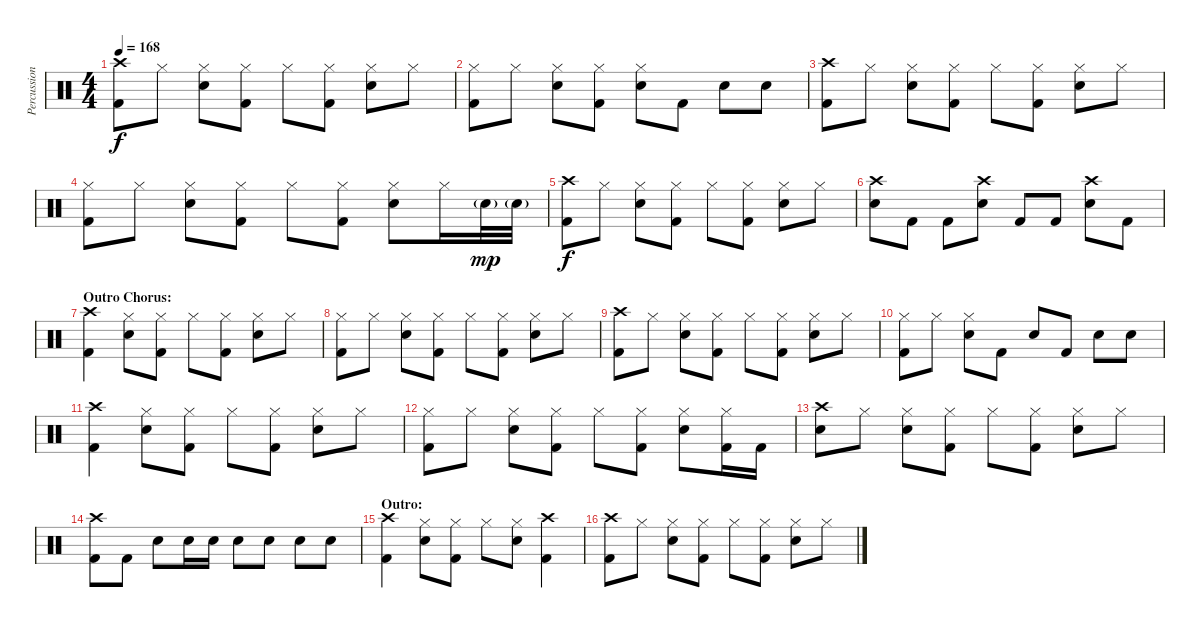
\track ("Percussion" "Percussion") {instrument percussion}
\staff {score}
\articulation defaults
\ts (4 4)
\tempo 168
\clef neutral
\ks c
("Crash high (hit)" "Kick (hit) 2").8{dy f} "Hi-Hat (closed)".8 ("Hi-Hat (closed)" "Snare (hit) 2").8 ("Hi-Hat (closed)" "Kick (hit) 2").8 "Hi-Hat (closed)".8 ("Hi-Hat (closed)" "Kick (hit) 2").8 ("Hi-Hat (closed)" "Snare (hit) 2").8 "Hi-Hat (closed)".8 |
("Hi-Hat (closed)" "Kick (hit) 2").8 "Hi-Hat (closed)".8 ("Hi-Hat (closed)" "Snare (hit) 2").8 ("Hi-Hat (closed)" "Kick (hit) 2").8 ("Hi-Hat (closed)" "Snare (hit) 2").8 "Kick (hit) 2".8 "Snare (hit) 2".8 "Snare (hit) 2".8 |
("Crash high (hit)" "Kick (hit) 2").8 "Hi-Hat (closed)".8 ("Hi-Hat (closed)" "Snare (hit) 2").8 ("Hi-Hat (closed)" "Kick (hit) 2").8 "Hi-Hat (closed)".8 ("Hi-Hat (closed)" "Kick (hit) 2").8 ("Hi-Hat (closed)" "Snare (hit) 2").8 "Hi-Hat (closed)".8 |
("Hi-Hat (closed)" "Kick (hit) 2").8 "Hi-Hat (closed)".8 ("Hi-Hat (closed)" "Snare (hit) 2").8 ("Hi-Hat (closed)" "Kick (hit) 2").8 "Hi-Hat (closed)".8 ("Hi-Hat (closed)" "Kick (hit) 2").8 ("Hi-Hat (closed)" "Snare (hit) 2").8 "Hi-Hat (closed)".16 "Snare (hit) 2"{g}.32{dy mp} "Snare (hit) 2"{g}.32 |
("Crash high (hit)" "Kick (hit) 2").8{dy f} "Hi-Hat (closed)".8 ("Hi-Hat (closed)" "Snare (hit) 2").8 ("Hi-Hat (closed)" "Kick (hit) 2").8 "Hi-Hat (closed)".8 ("Hi-Hat (closed)" "Kick (hit) 2").8 ("Hi-Hat (closed)" "Snare (hit) 2").8 "Hi-Hat (closed)".8 |
("Crash high (hit)" "Snare (hit) 2").8 "Kick (hit) 2".8 "Kick (hit) 2".8 ("Crash high (hit)" "Snare (hit) 2").8 "Kick (hit) 2".8 "Kick (hit) 2".8 ("Crash high (hit)" "Snare (hit) 2").8 "Kick (hit) 2".8 |
\section ("" "Outro Chorus:")
("Crash high (hit)" "Kick (hit) 2").4 ("Hi-Hat (closed)" "Snare (hit) 2").8 ("Hi-Hat (closed)" "Kick (hit) 2").8 "Hi-Hat (closed)".8 ("Hi-Hat (closed)" "Kick (hit) 2").8 ("Hi-Hat (closed)" "Snare (hit) 2").8 "Hi-Hat (closed)".8 |
("Hi-Hat (closed)" "Kick (hit) 2").8 "Hi-Hat (closed)".8 ("Hi-Hat (closed)" "Snare (hit) 2").8 ("Hi-Hat (closed)" "Kick (hit) 2").8 "Hi-Hat (closed)".8 ("Hi-Hat (closed)" "Kick (hit) 2").8 ("Hi-Hat (closed)" "Snare (hit) 2").8 "Hi-Hat (closed)".8 |
("Crash high (hit)" "Kick (hit) 2").8 "Hi-Hat (closed)".8 ("Hi-Hat (closed)" "Snare (hit) 2").8 ("Hi-Hat (closed)" "Kick (hit) 2").8 "Hi-Hat (closed)".8 ("Hi-Hat (closed)" "Kick (hit) 2").8 ("Hi-Hat (closed)" "Snare (hit) 2").8 "Hi-Hat (closed)".8 |
("Hi-Hat (closed)" "Kick (hit) 2").8 "Hi-Hat (closed)".8 ("Hi-Hat (closed)" "Snare (hit) 2").8 "Kick (hit) 2".8 "Snare (hit) 2".8 "Kick (hit) 2".8 "Snare (hit) 2".8 "Snare (hit) 2".8 |
("Crash high (hit)" "Kick (hit) 2").4 ("Hi-Hat (closed)" "Snare (hit) 2").8 ("Hi-Hat (closed)" "Kick (hit) 2").8 "Hi-Hat (closed)".8 ("Hi-Hat (closed)" "Kick (hit) 2").8 ("Hi-Hat (closed)" "Snare (hit) 2").8 "Hi-Hat (closed)".8 |
("Hi-Hat (closed)" "Kick (hit) 2").8 "Hi-Hat (closed)".8 ("Hi-Hat (closed)" "Snare (hit) 2").8 ("Hi-Hat (closed)" "Kick (hit) 2").8 "Hi-Hat (closed)".8 ("Hi-Hat (closed)" "Kick (hit) 2").8 ("Hi-Hat (closed)" "Snare (hit) 2").8 ("Hi-Hat (closed)" "Kick (hit) 2").16 "Kick (hit) 2".16 |
("Crash high (hit)" "Snare (hit) 2").8 "Hi-Hat (closed)".8 ("Hi-Hat (closed)" "Snare (hit) 2").8 ("Hi-Hat (closed)" "Kick (hit) 2").8 "Hi-Hat (closed)".8 ("Hi-Hat (closed)" "Kick (hit) 2").8 ("Hi-Hat (closed)" "Snare (hit) 2").8 "Hi-Hat (closed)".8 |
("Crash high (hit)" "Kick (hit) 2").8 "Kick (hit) 2".8 "Snare (hit) 2".8 "Snare (hit) 2".16 "Snare (hit) 2".16 "Snare (hit) 2".8 "Snare (hit) 2".8 "Snare (hit) 2".8 "Snare (hit) 2".8 |
\section ("" "Outro:")
("Crash high (hit)" "Kick (hit) 2").4 ("Hi-Hat (closed)" "Snare (hit) 2").8 ("Hi-Hat (closed)" "Kick (hit) 2").8 "Hi-Hat (closed)".8 ("Hi-Hat (closed)" "Snare (hit) 2").8 ("Crash high (hit)" "Kick (hit) 2").4 |
("Crash high (hit)" "Kick (hit) 2").8 "Hi-Hat (closed)".8 ("Hi-Hat (closed)" "Snare (hit) 2").8 ("Hi-Hat (closed)" "Kick (hit) 2").8 "Hi-Hat (closed)".8 ("Hi-Hat (closed)" "Kick (hit) 2").8 ("Hi-Hat (closed)" "Snare (hit) 2").8 "Hi-Hat (closed)".8
